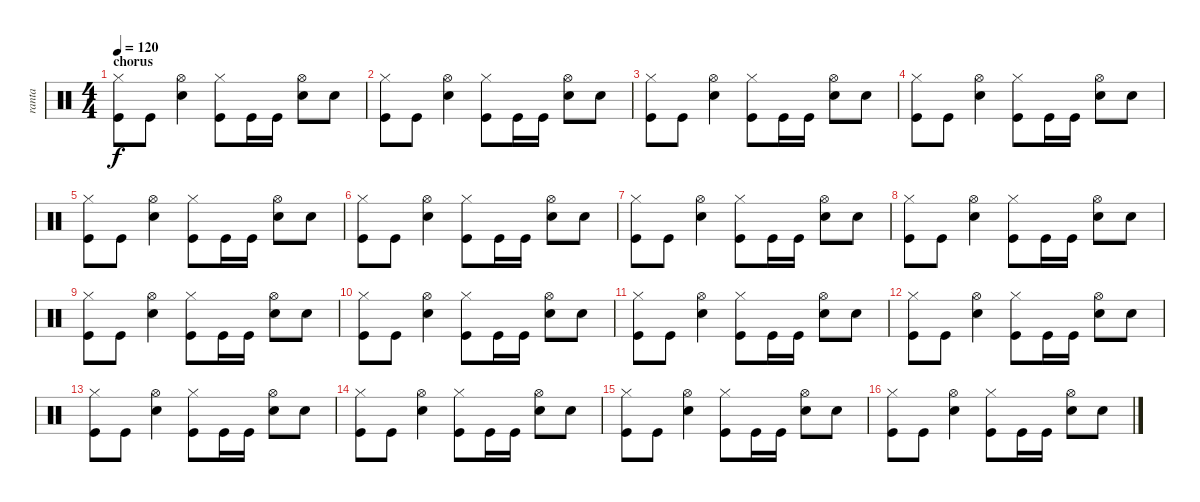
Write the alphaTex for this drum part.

\track ("ranta" "ranta") {instrument percussion}
\staff {score}
\articulation defaults
\ts (4 4)
\section ("" "chorus")
\tempo 120
\clef neutral
\ks c
("Hi-Hat (closed)" "Kick (hit)").8{dy f} "Kick (hit)".8 ("Hi-Hat (open)" "Snare (hit) 2").4 ("Hi-Hat (closed)" "Kick (hit)").8 "Kick (hit)".16 "Kick (hit)".16 ("Hi-Hat (open)" "Snare (hit) 2").8 "Snare (hit) 2".8 |
("Hi-Hat (closed)" "Kick (hit)").8 "Kick (hit)".8 ("Hi-Hat (open)" "Snare (hit) 2").4 ("Hi-Hat (closed)" "Kick (hit)").8 "Kick (hit)".16 "Kick (hit)".16 ("Hi-Hat (open)" "Snare (hit) 2").8 "Snare (hit) 2".8 |
("Hi-Hat (closed)" "Kick (hit)").8 "Kick (hit)".8 ("Hi-Hat (open)" "Snare (hit) 2").4 ("Hi-Hat (closed)" "Kick (hit)").8 "Kick (hit)".16 "Kick (hit)".16 ("Hi-Hat (open)" "Snare (hit) 2").8 "Snare (hit) 2".8 |
("Hi-Hat (closed)" "Kick (hit)").8 "Kick (hit)".8 ("Hi-Hat (open)" "Snare (hit) 2").4 ("Hi-Hat (closed)" "Kick (hit)").8 "Kick (hit)".16 "Kick (hit)".16 ("Hi-Hat (open)" "Snare (hit) 2").8 "Snare (hit) 2".8 |
("Hi-Hat (closed)" "Kick (hit)").8 "Kick (hit)".8 ("Hi-Hat (open)" "Snare (hit) 2").4 ("Hi-Hat (closed)" "Kick (hit)").8 "Kick (hit)".16 "Kick (hit)".16 ("Hi-Hat (open)" "Snare (hit) 2").8 "Snare (hit) 2".8 |
("Hi-Hat (closed)" "Kick (hit)").8 "Kick (hit)".8 ("Hi-Hat (open)" "Snare (hit) 2").4 ("Hi-Hat (closed)" "Kick (hit)").8 "Kick (hit)".16 "Kick (hit)".16 ("Hi-Hat (open)" "Snare (hit) 2").8 "Snare (hit) 2".8 |
("Hi-Hat (closed)" "Kick (hit)").8 "Kick (hit)".8 ("Hi-Hat (open)" "Snare (hit) 2").4 ("Hi-Hat (closed)" "Kick (hit)").8 "Kick (hit)".16 "Kick (hit)".16 ("Hi-Hat (open)" "Snare (hit) 2").8 "Snare (hit) 2".8 |
("Hi-Hat (closed)" "Kick (hit)").8 "Kick (hit)".8 ("Hi-Hat (open)" "Snare (hit) 2").4 ("Hi-Hat (closed)" "Kick (hit)").8 "Kick (hit)".16 "Kick (hit)".16 ("Hi-Hat (open)" "Snare (hit) 2").8 "Snare (hit) 2".8 |
("Hi-Hat (closed)" "Kick (hit)").8 "Kick (hit)".8 ("Hi-Hat (open)" "Snare (hit) 2").4 ("Hi-Hat (closed)" "Kick (hit)").8 "Kick (hit)".16 "Kick (hit)".16 ("Hi-Hat (open)" "Snare (hit) 2").8 "Snare (hit) 2".8 |
("Hi-Hat (closed)" "Kick (hit)").8 "Kick (hit)".8 ("Hi-Hat (open)" "Snare (hit) 2").4 ("Hi-Hat (closed)" "Kick (hit)").8 "Kick (hit)".16 "Kick (hit)".16 ("Hi-Hat (open)" "Snare (hit) 2").8 "Snare (hit) 2".8 |
("Hi-Hat (closed)" "Kick (hit)").8 "Kick (hit)".8 ("Hi-Hat (open)" "Snare (hit) 2").4 ("Hi-Hat (closed)" "Kick (hit)").8 "Kick (hit)".16 "Kick (hit)".16 ("Hi-Hat (open)" "Snare (hit) 2").8 "Snare (hit) 2".8 |
("Hi-Hat (closed)" "Kick (hit)").8 "Kick (hit)".8 ("Hi-Hat (open)" "Snare (hit) 2").4 ("Hi-Hat (closed)" "Kick (hit)").8 "Kick (hit)".16 "Kick (hit)".16 ("Hi-Hat (open)" "Snare (hit) 2").8 "Snare (hit) 2".8 |
("Hi-Hat (closed)" "Kick (hit)").8 "Kick (hit)".8 ("Hi-Hat (open)" "Snare (hit) 2").4 ("Hi-Hat (closed)" "Kick (hit)").8 "Kick (hit)".16 "Kick (hit)".16 ("Hi-Hat (open)" "Snare (hit) 2").8 "Snare (hit) 2".8 |
("Hi-Hat (closed)" "Kick (hit)").8 "Kick (hit)".8 ("Hi-Hat (open)" "Snare (hit) 2").4 ("Hi-Hat (closed)" "Kick (hit)").8 "Kick (hit)".16 "Kick (hit)".16 ("Hi-Hat (open)" "Snare (hit) 2").8 "Snare (hit) 2".8 |
("Hi-Hat (closed)" "Kick (hit)").8 "Kick (hit)".8 ("Hi-Hat (open)" "Snare (hit) 2").4 ("Hi-Hat (closed)" "Kick (hit)").8 "Kick (hit)".16 "Kick (hit)".16 ("Hi-Hat (open)" "Snare (hit) 2").8 "Snare (hit) 2".8 |
("Hi-Hat (closed)" "Kick (hit)").8 "Kick (hit)".8 ("Hi-Hat (open)" "Snare (hit) 2").4 ("Hi-Hat (closed)" "Kick (hit)").8 "Kick (hit)".16 "Kick (hit)".16 ("Hi-Hat (open)" "Snare (hit) 2").8 "Snare (hit) 2".8
